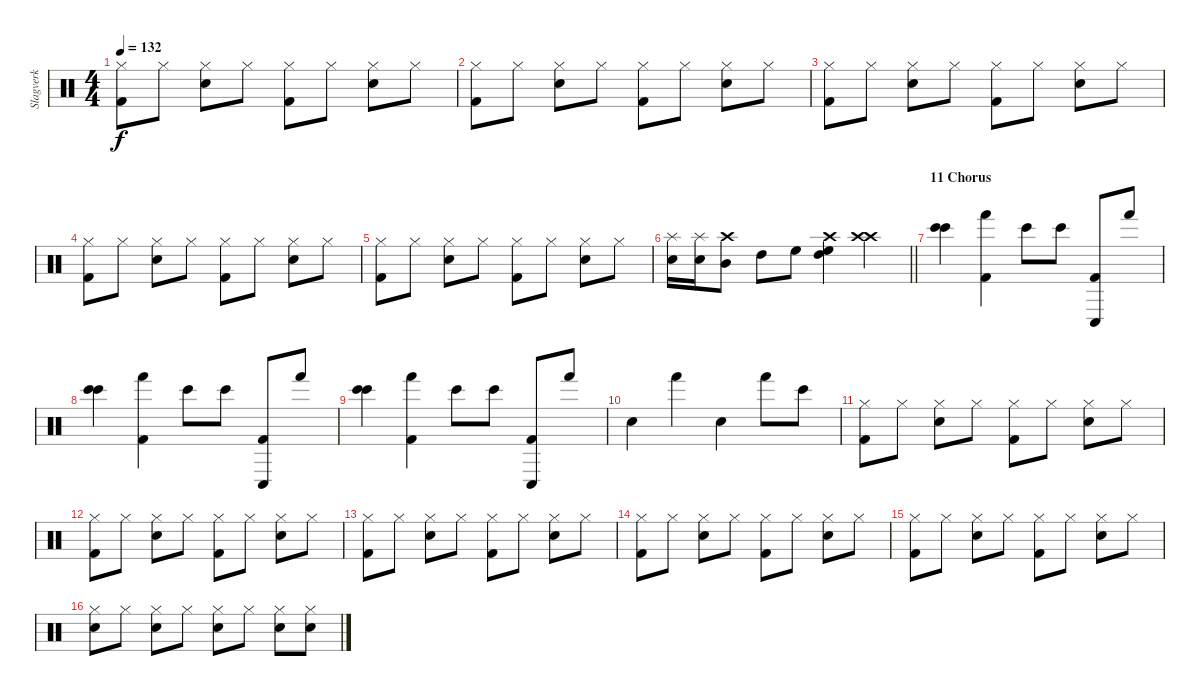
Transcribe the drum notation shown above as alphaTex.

\track ("Slagverk" "Slagverk") {instrument percussion}
\staff {score}
\articulation defaults
\ts (4 4)
\tempo 132
\clef neutral
\ks c
("Kick (hit) 2" "Hi-Hat (closed)").8{dy f} "Hi-Hat (closed)".8 ("Snare (hit) 2" "Hi-Hat (closed)").8 "Hi-Hat (closed)".8 ("Kick (hit) 2" "Hi-Hat (closed)").8 "Hi-Hat (closed)".8 ("Snare (hit) 2" "Hi-Hat (closed)").8 "Hi-Hat (closed)".8 |
("Kick (hit) 2" "Hi-Hat (closed)").8 "Hi-Hat (closed)".8 ("Snare (hit) 2" "Hi-Hat (closed)").8 "Hi-Hat (closed)".8 ("Kick (hit) 2" "Hi-Hat (closed)").8 "Hi-Hat (closed)".8 ("Snare (hit) 2" "Hi-Hat (closed)").8 "Hi-Hat (closed)".8 |
("Kick (hit) 2" "Hi-Hat (closed)").8 "Hi-Hat (closed)".8 ("Snare (hit) 2" "Hi-Hat (closed)").8 "Hi-Hat (closed)".8 ("Kick (hit) 2" "Hi-Hat (closed)").8 "Hi-Hat (closed)".8 ("Snare (hit) 2" "Hi-Hat (closed)").8 "Hi-Hat (closed)".8 |
("Kick (hit) 2" "Hi-Hat (closed)").8 "Hi-Hat (closed)".8 ("Snare (hit) 2" "Hi-Hat (closed)").8 "Hi-Hat (closed)".8 ("Kick (hit) 2" "Hi-Hat (closed)").8 "Hi-Hat (closed)".8 ("Snare (hit) 2" "Hi-Hat (closed)").8 "Hi-Hat (closed)".8 |
("Kick (hit) 2" "Hi-Hat (closed)").8 "Hi-Hat (closed)".8 ("Snare (hit) 2" "Hi-Hat (closed)").8 "Hi-Hat (closed)".8 ("Kick (hit) 2" "Hi-Hat (closed)").8 "Hi-Hat (closed)".8 ("Snare (hit) 2" "Hi-Hat (closed)").8 "Hi-Hat (closed)".8 |
\barLineRight lightlight
("Snare (hit) 2" "Splash (hit)").16 ("Snare (hit) 2" "Splash (hit)").16 ("Mid Tom (hit)" "Crash high (hit)").8 "High Tom (hit)".8 "High Floor Tom (hit)".8 ("High Floor Tom (hit)" "High Tom (hit)" "Crash high (hit)").4 ("Crash high (hit)" "Crash high (hit)").4 |
\section ("" "11 Chorus")
("Bongo High (hit)" "Bongo High (hit)").4 ("Kick (hit) 2" "Hand (hit)").4 "Bongo High (hit)".8 "Bongo High (hit)".8 ("Kick (hit) 2" "Conga low (hit)").8 "Hand (hit)".8 |
("Bongo High (hit)" "Bongo High (hit)").4 ("Kick (hit) 2" "Hand (hit)").4 "Bongo High (hit)".8 "Bongo High (hit)".8 ("Kick (hit) 2" "Conga low (hit)").8 "Hand (hit)".8 |
("Bongo High (hit)" "Bongo High (hit)").4 ("Kick (hit) 2" "Hand (hit)").4 "Bongo High (hit)".8 "Bongo High (hit)".8 ("Kick (hit) 2" "Conga low (hit)").8 "Hand (hit)".8 |
"Snare (hit) 2".4 "Hand (hit)".4 "Snare (hit) 2".4 "Hand (hit)".8 "Bongo High (hit)".8 |
("Kick (hit) 2" "Hi-Hat (closed)").8 "Hi-Hat (closed)".8 ("Snare (hit) 2" "Hi-Hat (closed)").8 "Hi-Hat (closed)".8 ("Kick (hit) 2" "Hi-Hat (closed)").8 "Hi-Hat (closed)".8 ("Snare (hit) 2" "Hi-Hat (closed)").8 "Hi-Hat (closed)".8 |
("Kick (hit) 2" "Hi-Hat (closed)").8 "Hi-Hat (closed)".8 ("Snare (hit) 2" "Hi-Hat (closed)").8 "Hi-Hat (closed)".8 ("Kick (hit) 2" "Hi-Hat (closed)").8 "Hi-Hat (closed)".8 ("Snare (hit) 2" "Hi-Hat (closed)").8 "Hi-Hat (closed)".8 |
("Kick (hit) 2" "Hi-Hat (closed)").8 "Hi-Hat (closed)".8 ("Snare (hit) 2" "Hi-Hat (closed)").8 "Hi-Hat (closed)".8 ("Kick (hit) 2" "Hi-Hat (closed)").8 "Hi-Hat (closed)".8 ("Snare (hit) 2" "Hi-Hat (closed)").8 "Hi-Hat (closed)".8 |
("Kick (hit) 2" "Hi-Hat (closed)").8 "Hi-Hat (closed)".8 ("Snare (hit) 2" "Hi-Hat (closed)").8 "Hi-Hat (closed)".8 ("Kick (hit) 2" "Hi-Hat (closed)").8 "Hi-Hat (closed)".8 ("Snare (hit) 2" "Hi-Hat (closed)").8 "Hi-Hat (closed)".8 |
("Kick (hit) 2" "Hi-Hat (closed)").8 "Hi-Hat (closed)".8 ("Snare (hit) 2" "Hi-Hat (closed)").8 "Hi-Hat (closed)".8 ("Kick (hit) 2" "Hi-Hat (closed)").8 "Hi-Hat (closed)".8 ("Snare (hit) 2" "Hi-Hat (closed)").8 "Hi-Hat (closed)".8 |
("Snare (hit) 2" "Hi-Hat (closed)").8 "Hi-Hat (closed)".8 ("Snare (hit) 2" "Hi-Hat (closed)").8 "Hi-Hat (closed)".8 ("Snare (hit) 2" "Hi-Hat (closed)").8 "Hi-Hat (closed)".8 ("Snare (hit) 2" "Hi-Hat (closed)").8 ("Snare (hit) 2" "Hi-Hat (closed)").8
